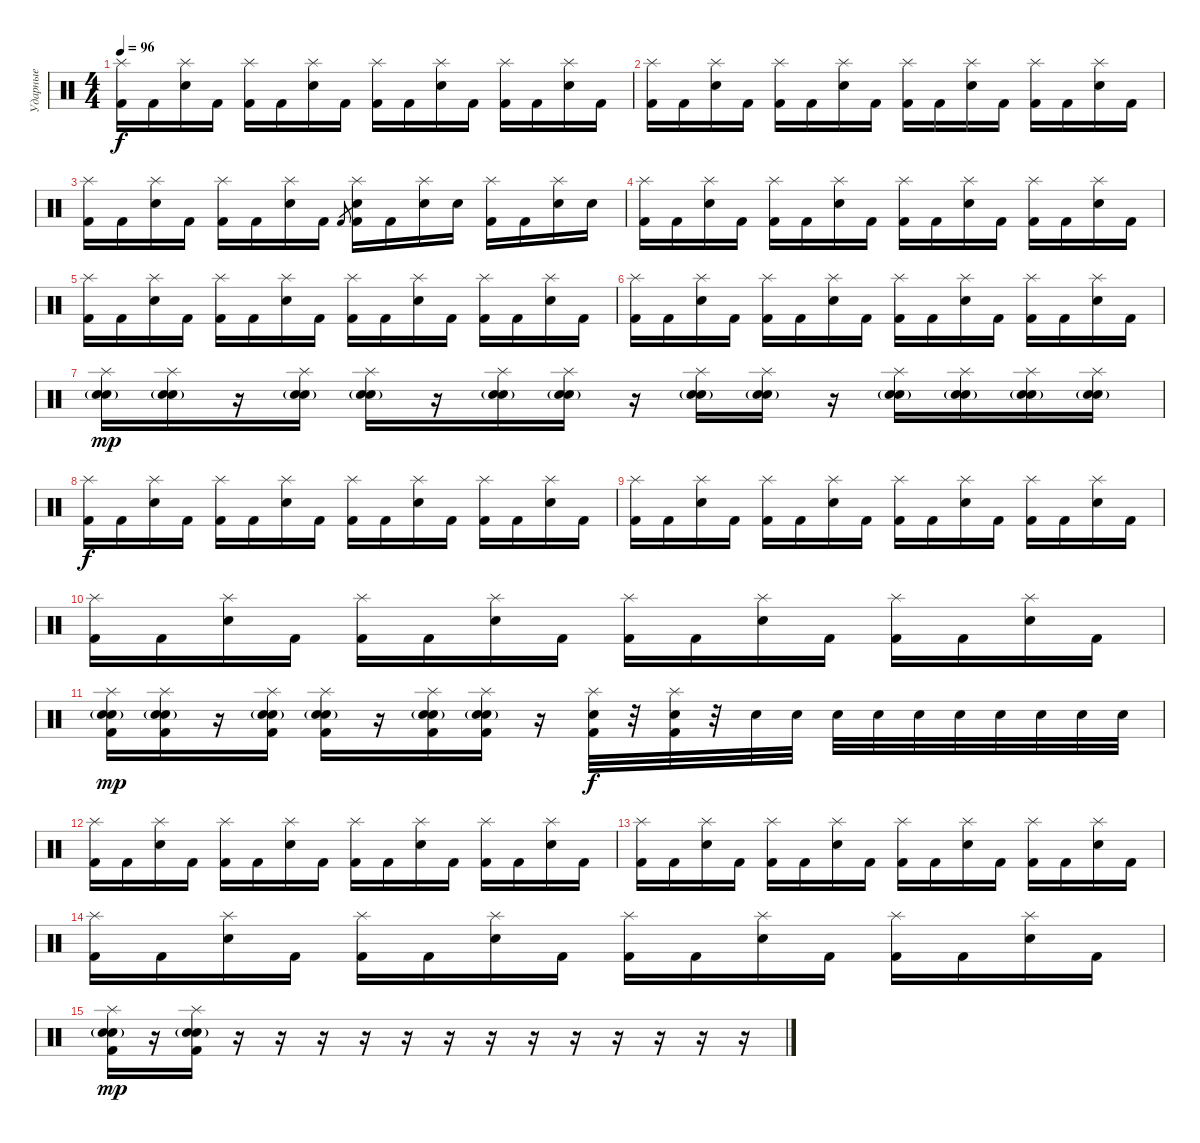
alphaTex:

\track ("Ударные" "Ударные") {instrument percussion}
\staff {score}
\articulation defaults
\ts (4 4)
\tempo 96
\clef neutral
\ks c
("Splash (hit)" "Kick (hit) 2").16{dy f} "Kick (hit) 2".16 ("Splash (hit)" "Electric Snare (hit)").16 "Kick (hit) 2".16 ("Splash (hit)" "Kick (hit) 2").16 "Kick (hit) 2".16 ("Splash (hit)" "Electric Snare (hit)").16 "Kick (hit) 2".16 ("Splash (hit)" "Kick (hit) 2").16 "Kick (hit) 2".16 ("Splash (hit)" "Electric Snare (hit)").16 "Kick (hit) 2".16 ("Splash (hit)" "Kick (hit) 2").16 "Kick (hit) 2".16 ("Splash (hit)" "Electric Snare (hit)").16 "Kick (hit) 2".16 |
("Splash (hit)" "Kick (hit) 2").16 "Kick (hit) 2".16 ("Splash (hit)" "Electric Snare (hit)").16 "Kick (hit) 2".16 ("Splash (hit)" "Kick (hit) 2").16 "Kick (hit) 2".16 ("Splash (hit)" "Electric Snare (hit)").16 "Kick (hit) 2".16 ("Splash (hit)" "Kick (hit) 2").16 "Kick (hit) 2".16 ("Splash (hit)" "Electric Snare (hit)").16 "Kick (hit) 2".16 ("Splash (hit)" "Kick (hit) 2").16 "Kick (hit) 2".16 ("Splash (hit)" "Electric Snare (hit)").16 "Kick (hit) 2".16 |
("Splash (hit)" "Kick (hit) 2").16 "Kick (hit) 2".16 ("Splash (hit)" "Electric Snare (hit)").16 "Kick (hit) 2".16 ("Splash (hit)" "Kick (hit) 2").16 "Kick (hit) 2".16 ("Splash (hit)" "Electric Snare (hit)").16 "Kick (hit) 2".16 "Kick (hit) 2".8{gr} ("Splash (hit)" "Electric Snare (hit)" "Kick (hit) 2").16 "Kick (hit) 2".16 ("Splash (hit)" "Electric Snare (hit)").16 "Electric Snare (hit)".16 ("Splash (hit)" "Kick (hit) 2").16 "Kick (hit) 2".16 ("Splash (hit)" "Electric Snare (hit)").16 "Electric Snare (hit)".16 |
("Splash (hit)" "Kick (hit) 2").16 "Kick (hit) 2".16 ("Splash (hit)" "Electric Snare (hit)").16 "Kick (hit) 2".16 ("Splash (hit)" "Kick (hit) 2").16 "Kick (hit) 2".16 ("Splash (hit)" "Electric Snare (hit)").16 "Kick (hit) 2".16 ("Splash (hit)" "Kick (hit) 2").16 "Kick (hit) 2".16 ("Splash (hit)" "Electric Snare (hit)").16 "Kick (hit) 2".16 ("Splash (hit)" "Kick (hit) 2").16 "Kick (hit) 2".16 ("Splash (hit)" "Electric Snare (hit)").16 "Kick (hit) 2".16 |
("Splash (hit)" "Kick (hit) 2").16 "Kick (hit) 2".16 ("Splash (hit)" "Electric Snare (hit)").16 "Kick (hit) 2".16 ("Splash (hit)" "Kick (hit) 2").16 "Kick (hit) 2".16 ("Splash (hit)" "Electric Snare (hit)").16 "Kick (hit) 2".16 ("Splash (hit)" "Kick (hit) 2").16 "Kick (hit) 2".16 ("Splash (hit)" "Electric Snare (hit)").16 "Kick (hit) 2".16 ("Splash (hit)" "Kick (hit) 2").16 "Kick (hit) 2".16 ("Splash (hit)" "Electric Snare (hit)").16 "Kick (hit) 2".16 |
("Splash (hit)" "Kick (hit) 2").16 "Kick (hit) 2".16 ("Splash (hit)" "Electric Snare (hit)").16 "Kick (hit) 2".16 ("Splash (hit)" "Kick (hit) 2").16 "Kick (hit) 2".16 ("Splash (hit)" "Electric Snare (hit)").16 "Kick (hit) 2".16 ("Splash (hit)" "Kick (hit) 2").16 "Kick (hit) 2".16 ("Splash (hit)" "Electric Snare (hit)").16 "Kick (hit) 2".16 ("Splash (hit)" "Kick (hit) 2").16 "Kick (hit) 2".16 ("Splash (hit)" "Electric Snare (hit)").16 "Kick (hit) 2".16 |
("Splash (hit)" "Snare (hit) 2"{g} "Electric Snare (hit)").16{dy mp} ("Splash (hit)" "Snare (hit) 2"{g} "Electric Snare (hit)").16 r.16 ("Splash (hit)" "Snare (hit) 2"{g} "Electric Snare (hit)").16 ("Splash (hit)" "Snare (hit) 2"{g} "Electric Snare (hit)").16 r.16 ("Splash (hit)" "Snare (hit) 2"{g} "Electric Snare (hit)").16 ("Splash (hit)" "Snare (hit) 2"{g} "Electric Snare (hit)").16 r.16 ("Splash (hit)" "Snare (hit) 2"{g} "Electric Snare (hit)").16 ("Splash (hit)" "Snare (hit) 2"{g} "Electric Snare (hit)").16 r.16 ("Splash (hit)" "Snare (hit) 2"{g} "Electric Snare (hit)").16 ("Splash (hit)" "Snare (hit) 2"{g} "Electric Snare (hit)").16 ("Splash (hit)" "Snare (hit) 2"{g} "Electric Snare (hit)").16 ("Splash (hit)" "Snare (hit) 2"{g} "Electric Snare (hit)").16 |
("Splash (hit)" "Kick (hit) 2").16{dy f} "Kick (hit) 2".16 ("Splash (hit)" "Electric Snare (hit)").16 "Kick (hit) 2".16 ("Splash (hit)" "Kick (hit) 2").16 "Kick (hit) 2".16 ("Splash (hit)" "Electric Snare (hit)").16 "Kick (hit) 2".16 ("Splash (hit)" "Kick (hit) 2").16 "Kick (hit) 2".16 ("Splash (hit)" "Electric Snare (hit)").16 "Kick (hit) 2".16 ("Splash (hit)" "Kick (hit) 2").16 "Kick (hit) 2".16 ("Splash (hit)" "Electric Snare (hit)").16 "Kick (hit) 2".16 |
("Splash (hit)" "Kick (hit) 2").16 "Kick (hit) 2".16 ("Splash (hit)" "Electric Snare (hit)").16 "Kick (hit) 2".16 ("Splash (hit)" "Kick (hit) 2").16 "Kick (hit) 2".16 ("Splash (hit)" "Electric Snare (hit)").16 "Kick (hit) 2".16 ("Splash (hit)" "Kick (hit) 2").16 "Kick (hit) 2".16 ("Splash (hit)" "Electric Snare (hit)").16 "Kick (hit) 2".16 ("Splash (hit)" "Kick (hit) 2").16 "Kick (hit) 2".16 ("Splash (hit)" "Electric Snare (hit)").16 "Kick (hit) 2".16 |
("Splash (hit)" "Kick (hit) 2").16 "Kick (hit) 2".16 ("Splash (hit)" "Electric Snare (hit)").16 "Kick (hit) 2".16 ("Splash (hit)" "Kick (hit) 2").16 "Kick (hit) 2".16 ("Splash (hit)" "Electric Snare (hit)").16 "Kick (hit) 2".16 ("Splash (hit)" "Kick (hit) 2").16 "Kick (hit) 2".16 ("Splash (hit)" "Electric Snare (hit)").16 "Kick (hit) 2".16 ("Splash (hit)" "Kick (hit) 2").16 "Kick (hit) 2".16 ("Splash (hit)" "Electric Snare (hit)").16 "Kick (hit) 2".16 |
("Splash (hit)" "Snare (hit) 2"{g} "Electric Snare (hit)" "Kick (hit) 2").16{dy mp} ("Splash (hit)" "Snare (hit) 2"{g} "Electric Snare (hit)" "Kick (hit) 2").16 r.16 ("Splash (hit)" "Snare (hit) 2"{g} "Electric Snare (hit)" "Kick (hit) 2").16 ("Splash (hit)" "Snare (hit) 2"{g} "Electric Snare (hit)" "Kick (hit) 2").16 r.16 ("Splash (hit)" "Snare (hit) 2"{g} "Electric Snare (hit)" "Kick (hit) 2").16 ("Splash (hit)" "Snare (hit) 2"{g} "Electric Snare (hit)" "Kick (hit) 2").16 r.16 ("Splash (hit)" "Electric Snare (hit)" "Kick (hit) 2").32{dy f} r.32 ("Splash (hit)" "Electric Snare (hit)" "Kick (hit) 2").32 r.32 "Electric Snare (hit)".32 "Electric Snare (hit)".32 "Electric Snare (hit)".32 "Electric Snare (hit)".32 "Electric Snare (hit)".32 "Electric Snare (hit)".32 "Electric Snare (hit)".32 "Electric Snare (hit)".32 "Electric Snare (hit)".32 "Electric Snare (hit)".32 |
("Splash (hit)" "Kick (hit) 2").16 "Kick (hit) 2".16 ("Splash (hit)" "Electric Snare (hit)").16 "Kick (hit) 2".16 ("Splash (hit)" "Kick (hit) 2").16 "Kick (hit) 2".16 ("Splash (hit)" "Electric Snare (hit)").16 "Kick (hit) 2".16 ("Splash (hit)" "Kick (hit) 2").16 "Kick (hit) 2".16 ("Splash (hit)" "Electric Snare (hit)").16 "Kick (hit) 2".16 ("Splash (hit)" "Kick (hit) 2").16 "Kick (hit) 2".16 ("Splash (hit)" "Electric Snare (hit)").16 "Kick (hit) 2".16 |
("Splash (hit)" "Kick (hit) 2").16 "Kick (hit) 2".16 ("Splash (hit)" "Electric Snare (hit)").16 "Kick (hit) 2".16 ("Splash (hit)" "Kick (hit) 2").16 "Kick (hit) 2".16 ("Splash (hit)" "Electric Snare (hit)").16 "Kick (hit) 2".16 ("Splash (hit)" "Kick (hit) 2").16 "Kick (hit) 2".16 ("Splash (hit)" "Electric Snare (hit)").16 "Kick (hit) 2".16 ("Splash (hit)" "Kick (hit) 2").16 "Kick (hit) 2".16 ("Splash (hit)" "Electric Snare (hit)").16 "Kick (hit) 2".16 |
("Splash (hit)" "Kick (hit) 2").16 "Kick (hit) 2".16 ("Splash (hit)" "Electric Snare (hit)").16 "Kick (hit) 2".16 ("Splash (hit)" "Kick (hit) 2").16 "Kick (hit) 2".16 ("Splash (hit)" "Electric Snare (hit)").16 "Kick (hit) 2".16 ("Splash (hit)" "Kick (hit) 2").16 "Kick (hit) 2".16 ("Splash (hit)" "Electric Snare (hit)").16 "Kick (hit) 2".16 ("Splash (hit)" "Kick (hit) 2").16 "Kick (hit) 2".16 ("Splash (hit)" "Electric Snare (hit)").16 "Kick (hit) 2".16 |
("Splash (hit)" "Snare (hit) 2"{g} "Electric Snare (hit)" "Kick (hit) 2").16{dy mp} r.16 ("Splash (hit)" "Snare (hit) 2"{g} "Electric Snare (hit)" "Kick (hit) 2").16 r.16 r.16 r.16 r.16 r.16 r.16 r.16 r.16 r.16 r.16 r.16 r.16 r.16
